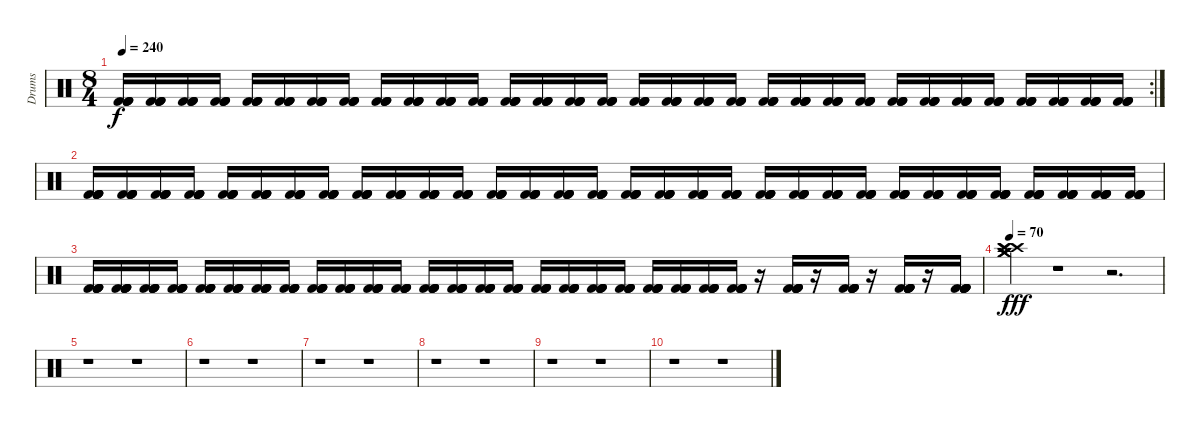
\track ("Drums" "Drums") {instrument percussion}
\staff {score}
\articulation defaults
\rc 2
\ts (8 4)
\tempo 240
\clef neutral
\ks c
("Kick (hit) 2" "Kick (hit) 2" "Kick (hit) 2" "Kick (hit) 2").16{dy f} ("Kick (hit) 2" "Kick (hit) 2" "Kick (hit) 2" "Kick (hit) 2").16 ("Kick (hit) 2" "Kick (hit) 2" "Kick (hit) 2" "Kick (hit) 2").16 ("Kick (hit) 2" "Kick (hit) 2" "Kick (hit) 2" "Kick (hit) 2").16 ("Kick (hit) 2" "Kick (hit) 2" "Kick (hit) 2" "Kick (hit) 2").16 ("Kick (hit) 2" "Kick (hit) 2" "Kick (hit) 2" "Kick (hit) 2").16 ("Kick (hit) 2" "Kick (hit) 2" "Kick (hit) 2" "Kick (hit) 2").16 ("Kick (hit) 2" "Kick (hit) 2" "Kick (hit) 2" "Kick (hit) 2").16 ("Kick (hit) 2" "Kick (hit) 2" "Kick (hit) 2" "Kick (hit) 2").16 ("Kick (hit) 2" "Kick (hit) 2" "Kick (hit) 2" "Kick (hit) 2").16 ("Kick (hit) 2" "Kick (hit) 2" "Kick (hit) 2" "Kick (hit) 2").16 ("Kick (hit) 2" "Kick (hit) 2" "Kick (hit) 2" "Kick (hit) 2").16 ("Kick (hit) 2" "Kick (hit) 2" "Kick (hit) 2" "Kick (hit) 2").16 ("Kick (hit) 2" "Kick (hit) 2" "Kick (hit) 2" "Kick (hit) 2").16 ("Kick (hit) 2" "Kick (hit) 2" "Kick (hit) 2" "Kick (hit) 2").16 ("Kick (hit) 2" "Kick (hit) 2" "Kick (hit) 2" "Kick (hit) 2").16 ("Kick (hit) 2" "Kick (hit) 2" "Kick (hit) 2" "Kick (hit) 2").16 ("Kick (hit) 2" "Kick (hit) 2" "Kick (hit) 2" "Kick (hit) 2").16 ("Kick (hit) 2" "Kick (hit) 2" "Kick (hit) 2" "Kick (hit) 2").16 ("Kick (hit) 2" "Kick (hit) 2" "Kick (hit) 2" "Kick (hit) 2").16 ("Kick (hit) 2" "Kick (hit) 2" "Kick (hit) 2" "Kick (hit) 2").16 ("Kick (hit) 2" "Kick (hit) 2" "Kick (hit) 2" "Kick (hit) 2").16 ("Kick (hit) 2" "Kick (hit) 2" "Kick (hit) 2" "Kick (hit) 2").16 ("Kick (hit) 2" "Kick (hit) 2" "Kick (hit) 2" "Kick (hit) 2").16 ("Kick (hit) 2" "Kick (hit) 2" "Kick (hit) 2" "Kick (hit) 2").16 ("Kick (hit) 2" "Kick (hit) 2" "Kick (hit) 2" "Kick (hit) 2").16 ("Kick (hit) 2" "Kick (hit) 2" "Kick (hit) 2" "Kick (hit) 2").16 ("Kick (hit) 2" "Kick (hit) 2" "Kick (hit) 2" "Kick (hit) 2").16 ("Kick (hit) 2" "Kick (hit) 2" "Kick (hit) 2" "Kick (hit) 2").16 ("Kick (hit) 2" "Kick (hit) 2" "Kick (hit) 2" "Kick (hit) 2").16 ("Kick (hit) 2" "Kick (hit) 2" "Kick (hit) 2" "Kick (hit) 2").16 ("Kick (hit) 2" "Kick (hit) 2" "Kick (hit) 2" "Kick (hit) 2").16 |
("Kick (hit) 2" "Kick (hit) 2" "Kick (hit) 2" "Kick (hit) 2" "Kick (hit) 2").16 ("Kick (hit) 2" "Kick (hit) 2" "Kick (hit) 2" "Kick (hit) 2" "Kick (hit) 2").16 ("Kick (hit) 2" "Kick (hit) 2" "Kick (hit) 2" "Kick (hit) 2" "Kick (hit) 2").16 ("Kick (hit) 2" "Kick (hit) 2" "Kick (hit) 2" "Kick (hit) 2" "Kick (hit) 2").16 ("Kick (hit) 2" "Kick (hit) 2" "Kick (hit) 2" "Kick (hit) 2" "Kick (hit) 2").16 ("Kick (hit) 2" "Kick (hit) 2" "Kick (hit) 2" "Kick (hit) 2" "Kick (hit) 2").16 ("Kick (hit) 2" "Kick (hit) 2" "Kick (hit) 2" "Kick (hit) 2" "Kick (hit) 2").16 ("Kick (hit) 2" "Kick (hit) 2" "Kick (hit) 2" "Kick (hit) 2" "Kick (hit) 2").16 ("Kick (hit) 2" "Kick (hit) 2" "Kick (hit) 2" "Kick (hit) 2" "Kick (hit) 2").16 ("Kick (hit) 2" "Kick (hit) 2" "Kick (hit) 2" "Kick (hit) 2" "Kick (hit) 2").16 ("Kick (hit) 2" "Kick (hit) 2" "Kick (hit) 2" "Kick (hit) 2" "Kick (hit) 2").16 ("Kick (hit) 2" "Kick (hit) 2" "Kick (hit) 2" "Kick (hit) 2" "Kick (hit) 2").16 ("Kick (hit) 2" "Kick (hit) 2" "Kick (hit) 2" "Kick (hit) 2" "Kick (hit) 2").16 ("Kick (hit) 2" "Kick (hit) 2" "Kick (hit) 2" "Kick (hit) 2" "Kick (hit) 2").16 ("Kick (hit) 2" "Kick (hit) 2" "Kick (hit) 2" "Kick (hit) 2" "Kick (hit) 2").16 ("Kick (hit) 2" "Kick (hit) 2" "Kick (hit) 2" "Kick (hit) 2" "Kick (hit) 2").16 ("Kick (hit) 2" "Kick (hit) 2" "Kick (hit) 2" "Kick (hit) 2" "Kick (hit) 2").16 ("Kick (hit) 2" "Kick (hit) 2" "Kick (hit) 2" "Kick (hit) 2" "Kick (hit) 2").16 ("Kick (hit) 2" "Kick (hit) 2" "Kick (hit) 2" "Kick (hit) 2" "Kick (hit) 2").16 ("Kick (hit) 2" "Kick (hit) 2" "Kick (hit) 2" "Kick (hit) 2" "Kick (hit) 2").16 ("Kick (hit) 2" "Kick (hit) 2" "Kick (hit) 2" "Kick (hit) 2" "Kick (hit) 2").16 ("Kick (hit) 2" "Kick (hit) 2" "Kick (hit) 2" "Kick (hit) 2" "Kick (hit) 2").16 ("Kick (hit) 2" "Kick (hit) 2" "Kick (hit) 2" "Kick (hit) 2" "Kick (hit) 2").16 ("Kick (hit) 2" "Kick (hit) 2" "Kick (hit) 2" "Kick (hit) 2" "Kick (hit) 2").16 ("Kick (hit) 2" "Kick (hit) 2" "Kick (hit) 2" "Kick (hit) 2" "Kick (hit) 2").16 ("Kick (hit) 2" "Kick (hit) 2" "Kick (hit) 2" "Kick (hit) 2" "Kick (hit) 2").16 ("Kick (hit) 2" "Kick (hit) 2" "Kick (hit) 2" "Kick (hit) 2" "Kick (hit) 2").16 ("Kick (hit) 2" "Kick (hit) 2" "Kick (hit) 2" "Kick (hit) 2" "Kick (hit) 2").16 ("Kick (hit) 2" "Kick (hit) 2" "Kick (hit) 2" "Kick (hit) 2" "Kick (hit) 2").16 ("Kick (hit) 2" "Kick (hit) 2" "Kick (hit) 2" "Kick (hit) 2" "Kick (hit) 2").16 ("Kick (hit) 2" "Kick (hit) 2" "Kick (hit) 2" "Kick (hit) 2" "Kick (hit) 2").16 ("Kick (hit) 2" "Kick (hit) 2" "Kick (hit) 2" "Kick (hit) 2" "Kick (hit) 2").16 |
("Kick (hit) 2" "Kick (hit) 2" "Kick (hit) 2" "Kick (hit) 2" "Kick (hit) 2").16 ("Kick (hit) 2" "Kick (hit) 2" "Kick (hit) 2" "Kick (hit) 2" "Kick (hit) 2").16 ("Kick (hit) 2" "Kick (hit) 2" "Kick (hit) 2" "Kick (hit) 2" "Kick (hit) 2").16 ("Kick (hit) 2" "Kick (hit) 2" "Kick (hit) 2" "Kick (hit) 2" "Kick (hit) 2").16 ("Kick (hit) 2" "Kick (hit) 2" "Kick (hit) 2" "Kick (hit) 2" "Kick (hit) 2").16 ("Kick (hit) 2" "Kick (hit) 2" "Kick (hit) 2" "Kick (hit) 2" "Kick (hit) 2").16 ("Kick (hit) 2" "Kick (hit) 2" "Kick (hit) 2" "Kick (hit) 2" "Kick (hit) 2").16 ("Kick (hit) 2" "Kick (hit) 2" "Kick (hit) 2" "Kick (hit) 2" "Kick (hit) 2").16 ("Kick (hit) 2" "Kick (hit) 2" "Kick (hit) 2" "Kick (hit) 2" "Kick (hit) 2").16 ("Kick (hit) 2" "Kick (hit) 2" "Kick (hit) 2" "Kick (hit) 2" "Kick (hit) 2").16 ("Kick (hit) 2" "Kick (hit) 2" "Kick (hit) 2" "Kick (hit) 2" "Kick (hit) 2").16 ("Kick (hit) 2" "Kick (hit) 2" "Kick (hit) 2" "Kick (hit) 2" "Kick (hit) 2").16 ("Kick (hit) 2" "Kick (hit) 2" "Kick (hit) 2" "Kick (hit) 2" "Kick (hit) 2").16 ("Kick (hit) 2" "Kick (hit) 2" "Kick (hit) 2" "Kick (hit) 2" "Kick (hit) 2").16 ("Kick (hit) 2" "Kick (hit) 2" "Kick (hit) 2" "Kick (hit) 2" "Kick (hit) 2").16 ("Kick (hit) 2" "Kick (hit) 2" "Kick (hit) 2" "Kick (hit) 2" "Kick (hit) 2").16 ("Kick (hit) 2" "Kick (hit) 2" "Kick (hit) 2" "Kick (hit) 2" "Kick (hit) 2").16 ("Kick (hit) 2" "Kick (hit) 2" "Kick (hit) 2" "Kick (hit) 2" "Kick (hit) 2").16 ("Kick (hit) 2" "Kick (hit) 2" "Kick (hit) 2" "Kick (hit) 2" "Kick (hit) 2").16 ("Kick (hit) 2" "Kick (hit) 2" "Kick (hit) 2" "Kick (hit) 2" "Kick (hit) 2").16 ("Kick (hit) 2" "Kick (hit) 2" "Kick (hit) 2" "Kick (hit) 2" "Kick (hit) 2").16 ("Kick (hit) 2" "Kick (hit) 2" "Kick (hit) 2" "Kick (hit) 2" "Kick (hit) 2").16 ("Kick (hit) 2" "Kick (hit) 2" "Kick (hit) 2" "Kick (hit) 2" "Kick (hit) 2").16 ("Kick (hit) 2" "Kick (hit) 2" "Kick (hit) 2" "Kick (hit) 2" "Kick (hit) 2").16 r.16 ("Kick (hit) 2" "Kick (hit) 2" "Kick (hit) 2" "Kick (hit) 2" "Kick (hit) 2" "Kick (hit) 2").16 r.16 ("Kick (hit) 2" "Kick (hit) 2" "Kick (hit) 2" "Kick (hit) 2" "Kick (hit) 2" "Kick (hit) 2").16 r.16 ("Kick (hit) 2" "Kick (hit) 2" "Kick (hit) 2" "Kick (hit) 2" "Kick (hit) 2" "Kick (hit) 2").16 r.16 ("Kick (hit) 2" "Kick (hit) 2" "Kick (hit) 2" "Kick (hit) 2" "Kick (hit) 2" "Kick (hit) 2").16 |
\tempo 70
("Crash high (hit)" "Crash high (hit)" "Crash high (hit)" "Crash medium (hit)" "Crash medium (hit)" "Crash medium (hit)").4{dy fff} r.1 r.2{d} |
r.1 r.1 |
r.1 r.1 |
r.1 r.1 |
r.1 r.1 |
r.1 r.1 |
r.1 r.1
